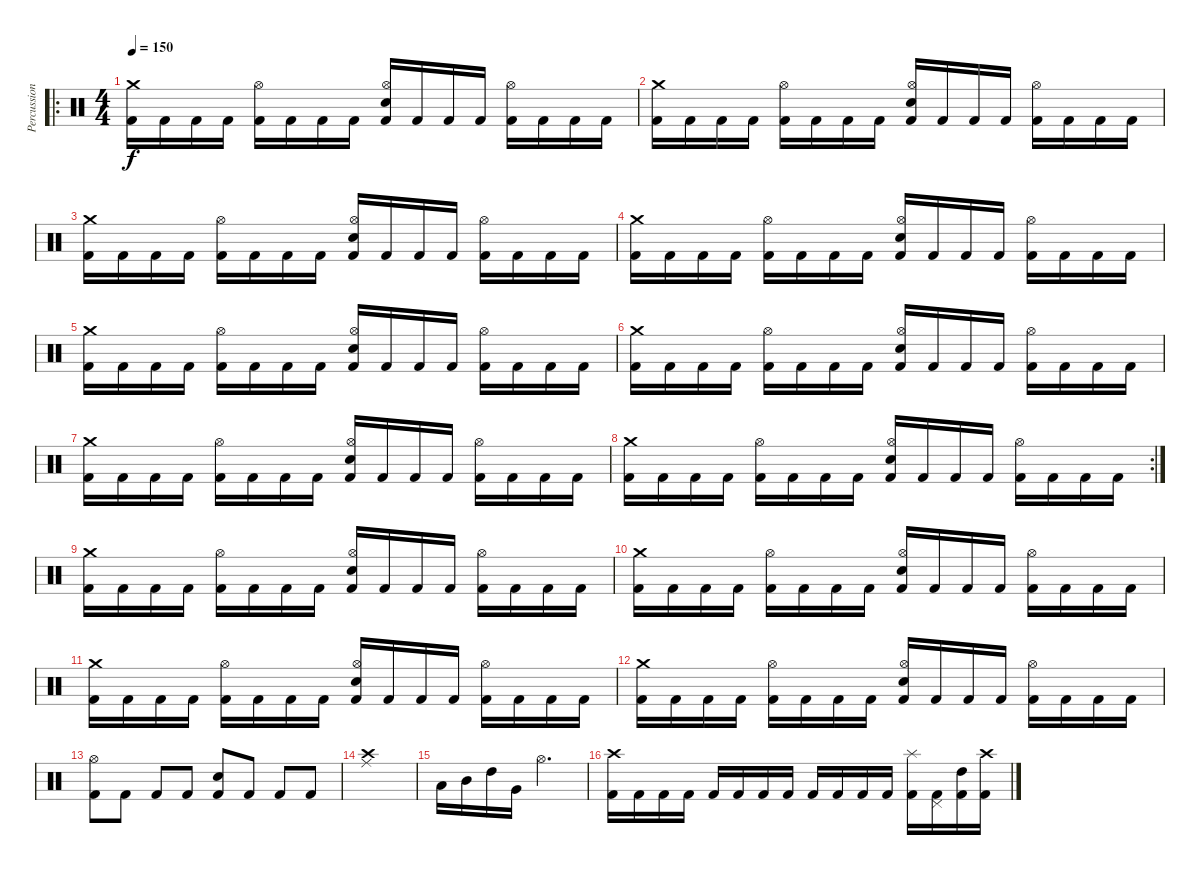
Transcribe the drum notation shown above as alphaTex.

\track ("Percussion" "Percussion") {instrument percussion}
\staff {score}
\articulation defaults
\ro
\ts (4 4)
\tempo 150
\clef neutral
\ks c
("Crash medium (hit)" "Kick (hit) 2").16{dy f} "Kick (hit) 2".16 "Kick (hit) 2".16 "Kick (hit) 2".16 ("Hi-Hat (open)" "Kick (hit) 2").16 "Kick (hit) 2".16 "Kick (hit) 2".16 "Kick (hit) 2".16 ("Hi-Hat (open)" "Snare (hit) 2" "Kick (hit) 2").16 "Kick (hit) 2".16 "Kick (hit) 2".16 "Kick (hit) 2".16 ("Hi-Hat (open)" "Kick (hit) 2").16 "Kick (hit) 2".16 "Kick (hit) 2".16 "Kick (hit) 2".16 |
("Crash medium (hit)" "Kick (hit) 2").16 "Kick (hit) 2".16 "Kick (hit) 2".16 "Kick (hit) 2".16 ("Hi-Hat (open)" "Kick (hit) 2").16 "Kick (hit) 2".16 "Kick (hit) 2".16 "Kick (hit) 2".16 ("Hi-Hat (open)" "Snare (hit) 2" "Kick (hit) 2").16 "Kick (hit) 2".16 "Kick (hit) 2".16 "Kick (hit) 2".16 ("Hi-Hat (open)" "Kick (hit) 2").16 "Kick (hit) 2".16 "Kick (hit) 2".16 "Kick (hit) 2".16 |
("Crash medium (hit)" "Kick (hit) 2").16 "Kick (hit) 2".16 "Kick (hit) 2".16 "Kick (hit) 2".16 ("Hi-Hat (open)" "Kick (hit) 2").16 "Kick (hit) 2".16 "Kick (hit) 2".16 "Kick (hit) 2".16 ("Hi-Hat (open)" "Snare (hit) 2" "Kick (hit) 2").16 "Kick (hit) 2".16 "Kick (hit) 2".16 "Kick (hit) 2".16 ("Hi-Hat (open)" "Kick (hit) 2").16 "Kick (hit) 2".16 "Kick (hit) 2".16 "Kick (hit) 2".16 |
("Crash medium (hit)" "Kick (hit) 2").16 "Kick (hit) 2".16 "Kick (hit) 2".16 "Kick (hit) 2".16 ("Hi-Hat (open)" "Kick (hit) 2").16 "Kick (hit) 2".16 "Kick (hit) 2".16 "Kick (hit) 2".16 ("Hi-Hat (open)" "Snare (hit) 2" "Kick (hit) 2").16 "Kick (hit) 2".16 "Kick (hit) 2".16 "Kick (hit) 2".16 ("Hi-Hat (open)" "Kick (hit) 2").16 "Kick (hit) 2".16 "Kick (hit) 2".16 "Kick (hit) 2".16 |
("Crash medium (hit)" "Kick (hit) 2").16 "Kick (hit) 2".16 "Kick (hit) 2".16 "Kick (hit) 2".16 ("Hi-Hat (open)" "Kick (hit) 2").16 "Kick (hit) 2".16 "Kick (hit) 2".16 "Kick (hit) 2".16 ("Hi-Hat (open)" "Snare (hit) 2" "Kick (hit) 2").16 "Kick (hit) 2".16 "Kick (hit) 2".16 "Kick (hit) 2".16 ("Hi-Hat (open)" "Kick (hit) 2").16 "Kick (hit) 2".16 "Kick (hit) 2".16 "Kick (hit) 2".16 |
("Crash medium (hit)" "Kick (hit) 2").16 "Kick (hit) 2".16 "Kick (hit) 2".16 "Kick (hit) 2".16 ("Hi-Hat (open)" "Kick (hit) 2").16 "Kick (hit) 2".16 "Kick (hit) 2".16 "Kick (hit) 2".16 ("Hi-Hat (open)" "Snare (hit) 2" "Kick (hit) 2").16 "Kick (hit) 2".16 "Kick (hit) 2".16 "Kick (hit) 2".16 ("Hi-Hat (open)" "Kick (hit) 2").16 "Kick (hit) 2".16 "Kick (hit) 2".16 "Kick (hit) 2".16 |
("Crash medium (hit)" "Kick (hit) 2").16 "Kick (hit) 2".16 "Kick (hit) 2".16 "Kick (hit) 2".16 ("Hi-Hat (open)" "Kick (hit) 2").16 "Kick (hit) 2".16 "Kick (hit) 2".16 "Kick (hit) 2".16 ("Hi-Hat (open)" "Snare (hit) 2" "Kick (hit) 2").16 "Kick (hit) 2".16 "Kick (hit) 2".16 "Kick (hit) 2".16 ("Hi-Hat (open)" "Kick (hit) 2").16 "Kick (hit) 2".16 "Kick (hit) 2".16 "Kick (hit) 2".16 |
\rc 2
("Crash medium (hit)" "Kick (hit) 2").16 "Kick (hit) 2".16 "Kick (hit) 2".16 "Kick (hit) 2".16 ("Hi-Hat (open)" "Kick (hit) 2").16 "Kick (hit) 2".16 "Kick (hit) 2".16 "Kick (hit) 2".16 ("Hi-Hat (open)" "Snare (hit) 2" "Kick (hit) 2").16 "Kick (hit) 2".16 "Kick (hit) 2".16 "Kick (hit) 2".16 ("Hi-Hat (open)" "Kick (hit) 2").16 "Kick (hit) 2".16 "Kick (hit) 2".16 "Kick (hit) 2".16 |
("Crash medium (hit)" "Kick (hit) 2").16 "Kick (hit) 2".16 "Kick (hit) 2".16 "Kick (hit) 2".16 ("Hi-Hat (open)" "Kick (hit) 2").16 "Kick (hit) 2".16 "Kick (hit) 2".16 "Kick (hit) 2".16 ("Hi-Hat (open)" "Snare (hit) 2" "Kick (hit) 2").16 "Kick (hit) 2".16 "Kick (hit) 2".16 "Kick (hit) 2".16 ("Hi-Hat (open)" "Kick (hit) 2").16 "Kick (hit) 2".16 "Kick (hit) 2".16 "Kick (hit) 2".16 |
("Crash medium (hit)" "Kick (hit) 2").16 "Kick (hit) 2".16 "Kick (hit) 2".16 "Kick (hit) 2".16 ("Hi-Hat (open)" "Kick (hit) 2").16 "Kick (hit) 2".16 "Kick (hit) 2".16 "Kick (hit) 2".16 ("Hi-Hat (open)" "Snare (hit) 2" "Kick (hit) 2").16 "Kick (hit) 2".16 "Kick (hit) 2".16 "Kick (hit) 2".16 ("Hi-Hat (open)" "Kick (hit) 2").16 "Kick (hit) 2".16 "Kick (hit) 2".16 "Kick (hit) 2".16 |
("Crash medium (hit)" "Kick (hit) 2").16 "Kick (hit) 2".16 "Kick (hit) 2".16 "Kick (hit) 2".16 ("Hi-Hat (open)" "Kick (hit) 2").16 "Kick (hit) 2".16 "Kick (hit) 2".16 "Kick (hit) 2".16 ("Hi-Hat (open)" "Snare (hit) 2" "Kick (hit) 2").16 "Kick (hit) 2".16 "Kick (hit) 2".16 "Kick (hit) 2".16 ("Hi-Hat (open)" "Kick (hit) 2").16 "Kick (hit) 2".16 "Kick (hit) 2".16 "Kick (hit) 2".16 |
("Crash medium (hit)" "Kick (hit) 2").16 "Kick (hit) 2".16 "Kick (hit) 2".16 "Kick (hit) 2".16 ("Hi-Hat (open)" "Kick (hit) 2").16 "Kick (hit) 2".16 "Kick (hit) 2".16 "Kick (hit) 2".16 ("Hi-Hat (open)" "Snare (hit) 2" "Kick (hit) 2").16 "Kick (hit) 2".16 "Kick (hit) 2".16 "Kick (hit) 2".16 ("Hi-Hat (open)" "Kick (hit) 2").16 "Kick (hit) 2".16 "Kick (hit) 2".16 "Kick (hit) 2".16 |
("Hi-Hat (open)" "Kick (hit) 2").8 "Kick (hit) 2".8 "Kick (hit) 2".8 "Kick (hit) 2".8 ("Snare (hit) 2" "Kick (hit) 2").8 "Kick (hit) 2".8 "Kick (hit) 2".8 "Kick (hit) 2".8 |
("Crash high (hit)" "Ride (middle)").1 |
"Low Tom (hit)".16 "Mid Tom (hit)".16 "High Tom (hit)".16 "Very Low Tom (hit)".16 "Hi-Hat (open)".2{d} |
("Crash high (hit)" "Kick (hit) 2").16 "Kick (hit) 2".16 "Kick (hit) 2".16 "Kick (hit) 2".16 "Kick (hit) 2".16 "Kick (hit) 2".16 "Kick (hit) 2".16 "Kick (hit) 2".16 "Kick (hit) 2".16 "Kick (hit) 2".16 "Kick (hit) 2".16 "Kick (hit) 2".16 ("Splash (hit)" "Kick (hit) 2").16 ("Pedal Hi-Hat (hit)" "Kick (hit) 2").16 ("High Tom (hit)" "Kick (hit) 2").16 ("Crash high (hit)" "Kick (hit) 2").16
